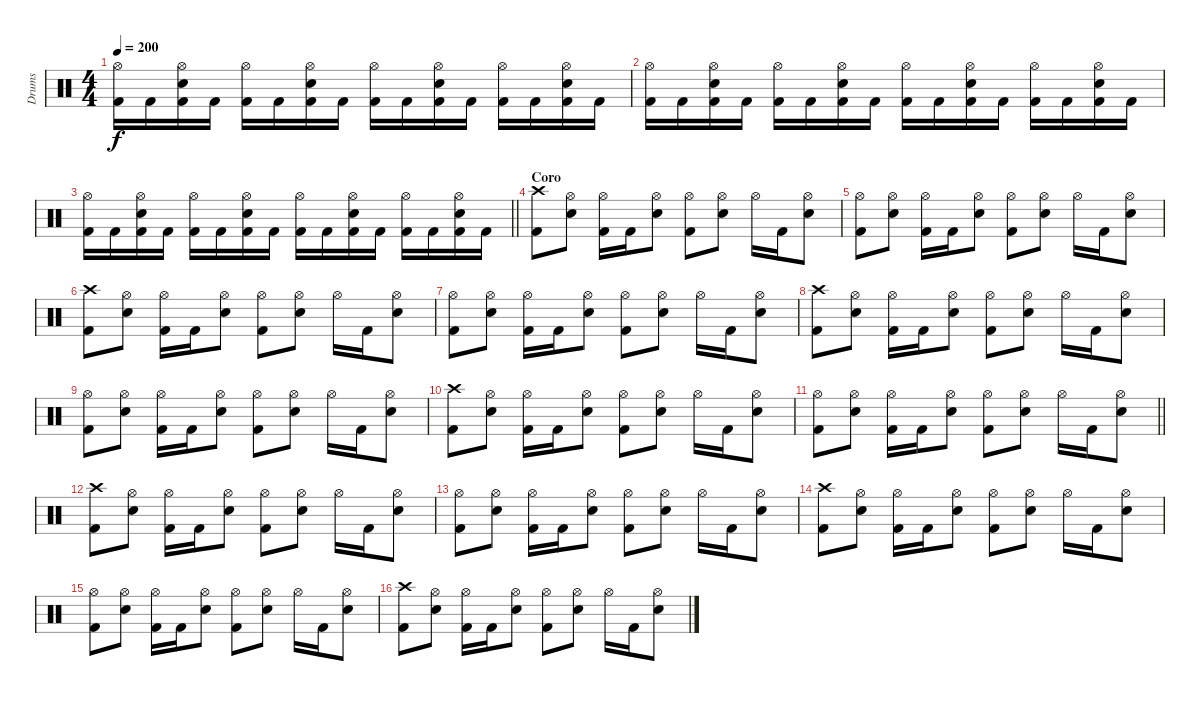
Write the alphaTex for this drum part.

\track ("Drums" "Drums") {instrument percussion}
\staff {score}
\articulation defaults
\ts (4 4)
\tempo 200
\clef neutral
\ks c
("Hi-Hat (open)" "Kick (hit) 2").16{dy f} "Kick (hit) 2".16 ("Hi-Hat (open)" "Electric Snare (hit)" "Kick (hit) 2").16 "Kick (hit) 2".16 ("Hi-Hat (open)" "Kick (hit) 2").16 "Kick (hit) 2".16 ("Hi-Hat (open)" "Electric Snare (hit)" "Kick (hit) 2").16 "Kick (hit) 2".16 ("Hi-Hat (open)" "Kick (hit) 2").16 "Kick (hit) 2".16 ("Hi-Hat (open)" "Electric Snare (hit)" "Kick (hit) 2").16 "Kick (hit) 2".16 ("Hi-Hat (open)" "Kick (hit) 2").16 "Kick (hit) 2".16 ("Hi-Hat (open)" "Electric Snare (hit)" "Kick (hit) 2").16 "Kick (hit) 2".16 |
("Hi-Hat (open)" "Kick (hit) 2").16 "Kick (hit) 2".16 ("Hi-Hat (open)" "Electric Snare (hit)" "Kick (hit) 2").16 "Kick (hit) 2".16 ("Hi-Hat (open)" "Kick (hit) 2").16 "Kick (hit) 2".16 ("Hi-Hat (open)" "Electric Snare (hit)" "Kick (hit) 2").16 "Kick (hit) 2".16 ("Hi-Hat (open)" "Kick (hit) 2").16 "Kick (hit) 2".16 ("Hi-Hat (open)" "Electric Snare (hit)" "Kick (hit) 2").16 "Kick (hit) 2".16 ("Hi-Hat (open)" "Kick (hit) 2").16 "Kick (hit) 2".16 ("Hi-Hat (open)" "Electric Snare (hit)" "Kick (hit) 2").16 "Kick (hit) 2".16 |
\barLineRight lightlight
("Hi-Hat (open)" "Kick (hit) 2").16 "Kick (hit) 2".16 ("Hi-Hat (open)" "Electric Snare (hit)" "Kick (hit) 2").16 "Kick (hit) 2".16 ("Hi-Hat (open)" "Kick (hit) 2").16 "Kick (hit) 2".16 ("Hi-Hat (open)" "Electric Snare (hit)" "Kick (hit) 2").16 "Kick (hit) 2".16 ("Hi-Hat (open)" "Kick (hit) 2").16 "Kick (hit) 2".16 ("Hi-Hat (open)" "Electric Snare (hit)" "Kick (hit) 2").16 "Kick (hit) 2".16 ("Hi-Hat (open)" "Kick (hit) 2").16 "Kick (hit) 2".16 ("Hi-Hat (open)" "Electric Snare (hit)" "Kick (hit) 2").16 "Kick (hit) 2".16 |
\section ("" "Coro")
("Crash high (hit)" "Kick (hit) 2").8 ("Hi-Hat (open)" "Electric Snare (hit)").8 ("Hi-Hat (open)" "Kick (hit) 2").16 "Kick (hit) 2".16 ("Hi-Hat (open)" "Electric Snare (hit)").8 ("Hi-Hat (open)" "Kick (hit) 2").8 ("Hi-Hat (open)" "Electric Snare (hit)").8 "Hi-Hat (open)".16 "Kick (hit) 2".16 ("Hi-Hat (open)" "Electric Snare (hit)").8 |
("Hi-Hat (open)" "Kick (hit) 2").8 ("Hi-Hat (open)" "Electric Snare (hit)").8 ("Hi-Hat (open)" "Kick (hit) 2").16 "Kick (hit) 2".16 ("Hi-Hat (open)" "Electric Snare (hit)").8 ("Hi-Hat (open)" "Kick (hit) 2").8 ("Hi-Hat (open)" "Electric Snare (hit)").8 "Hi-Hat (open)".16 "Kick (hit) 2".16 ("Hi-Hat (open)" "Electric Snare (hit)").8 |
("Crash high (hit)" "Kick (hit) 2").8 ("Hi-Hat (open)" "Electric Snare (hit)").8 ("Hi-Hat (open)" "Kick (hit) 2").16 "Kick (hit) 2".16 ("Hi-Hat (open)" "Electric Snare (hit)").8 ("Hi-Hat (open)" "Kick (hit) 2").8 ("Hi-Hat (open)" "Electric Snare (hit)").8 "Hi-Hat (open)".16 "Kick (hit) 2".16 ("Hi-Hat (open)" "Electric Snare (hit)").8 |
("Hi-Hat (open)" "Kick (hit) 2").8 ("Hi-Hat (open)" "Electric Snare (hit)").8 ("Hi-Hat (open)" "Kick (hit) 2").16 "Kick (hit) 2".16 ("Hi-Hat (open)" "Electric Snare (hit)").8 ("Hi-Hat (open)" "Kick (hit) 2").8 ("Hi-Hat (open)" "Electric Snare (hit)").8 "Hi-Hat (open)".16 "Kick (hit) 2".16 ("Hi-Hat (open)" "Electric Snare (hit)").8 |
("Crash high (hit)" "Kick (hit) 2").8 ("Hi-Hat (open)" "Electric Snare (hit)").8 ("Hi-Hat (open)" "Kick (hit) 2").16 "Kick (hit) 2".16 ("Hi-Hat (open)" "Electric Snare (hit)").8 ("Hi-Hat (open)" "Kick (hit) 2").8 ("Hi-Hat (open)" "Electric Snare (hit)").8 "Hi-Hat (open)".16 "Kick (hit) 2".16 ("Hi-Hat (open)" "Electric Snare (hit)").8 |
("Hi-Hat (open)" "Kick (hit) 2").8 ("Hi-Hat (open)" "Electric Snare (hit)").8 ("Hi-Hat (open)" "Kick (hit) 2").16 "Kick (hit) 2".16 ("Hi-Hat (open)" "Electric Snare (hit)").8 ("Hi-Hat (open)" "Kick (hit) 2").8 ("Hi-Hat (open)" "Electric Snare (hit)").8 "Hi-Hat (open)".16 "Kick (hit) 2".16 ("Hi-Hat (open)" "Electric Snare (hit)").8 |
("Crash high (hit)" "Kick (hit) 2").8 ("Hi-Hat (open)" "Electric Snare (hit)").8 ("Hi-Hat (open)" "Kick (hit) 2").16 "Kick (hit) 2".16 ("Hi-Hat (open)" "Electric Snare (hit)").8 ("Hi-Hat (open)" "Kick (hit) 2").8 ("Hi-Hat (open)" "Electric Snare (hit)").8 "Hi-Hat (open)".16 "Kick (hit) 2".16 ("Hi-Hat (open)" "Electric Snare (hit)").8 |
\barLineRight lightlight
("Hi-Hat (open)" "Kick (hit) 2").8 ("Hi-Hat (open)" "Electric Snare (hit)").8 ("Hi-Hat (open)" "Kick (hit) 2").16 "Kick (hit) 2".16 ("Hi-Hat (open)" "Electric Snare (hit)").8 ("Hi-Hat (open)" "Kick (hit) 2").8 ("Hi-Hat (open)" "Electric Snare (hit)").8 "Hi-Hat (open)".16 "Kick (hit) 2".16 ("Hi-Hat (open)" "Electric Snare (hit)").8 |
("Crash high (hit)" "Kick (hit) 2").8 ("Hi-Hat (open)" "Electric Snare (hit)").8 ("Hi-Hat (open)" "Kick (hit) 2").16 "Kick (hit) 2".16 ("Hi-Hat (open)" "Electric Snare (hit)").8 ("Hi-Hat (open)" "Kick (hit) 2").8 ("Hi-Hat (open)" "Electric Snare (hit)").8 "Hi-Hat (open)".16 "Kick (hit) 2".16 ("Hi-Hat (open)" "Electric Snare (hit)").8 |
("Hi-Hat (open)" "Kick (hit) 2").8 ("Hi-Hat (open)" "Electric Snare (hit)").8 ("Hi-Hat (open)" "Kick (hit) 2").16 "Kick (hit) 2".16 ("Hi-Hat (open)" "Electric Snare (hit)").8 ("Hi-Hat (open)" "Kick (hit) 2").8 ("Hi-Hat (open)" "Electric Snare (hit)").8 "Hi-Hat (open)".16 "Kick (hit) 2".16 ("Hi-Hat (open)" "Electric Snare (hit)").8 |
("Crash high (hit)" "Kick (hit) 2").8 ("Hi-Hat (open)" "Electric Snare (hit)").8 ("Hi-Hat (open)" "Kick (hit) 2").16 "Kick (hit) 2".16 ("Hi-Hat (open)" "Electric Snare (hit)").8 ("Hi-Hat (open)" "Kick (hit) 2").8 ("Hi-Hat (open)" "Electric Snare (hit)").8 "Hi-Hat (open)".16 "Kick (hit) 2".16 ("Hi-Hat (open)" "Electric Snare (hit)").8 |
("Hi-Hat (open)" "Kick (hit) 2").8 ("Hi-Hat (open)" "Electric Snare (hit)").8 ("Hi-Hat (open)" "Kick (hit) 2").16 "Kick (hit) 2".16 ("Hi-Hat (open)" "Electric Snare (hit)").8 ("Hi-Hat (open)" "Kick (hit) 2").8 ("Hi-Hat (open)" "Electric Snare (hit)").8 "Hi-Hat (open)".16 "Kick (hit) 2".16 ("Hi-Hat (open)" "Electric Snare (hit)").8 |
("Crash high (hit)" "Kick (hit) 2").8 ("Hi-Hat (open)" "Electric Snare (hit)").8 ("Hi-Hat (open)" "Kick (hit) 2").16 "Kick (hit) 2".16 ("Hi-Hat (open)" "Electric Snare (hit)").8 ("Hi-Hat (open)" "Kick (hit) 2").8 ("Hi-Hat (open)" "Electric Snare (hit)").8 "Hi-Hat (open)".16 "Kick (hit) 2".16 ("Hi-Hat (open)" "Electric Snare (hit)").8
